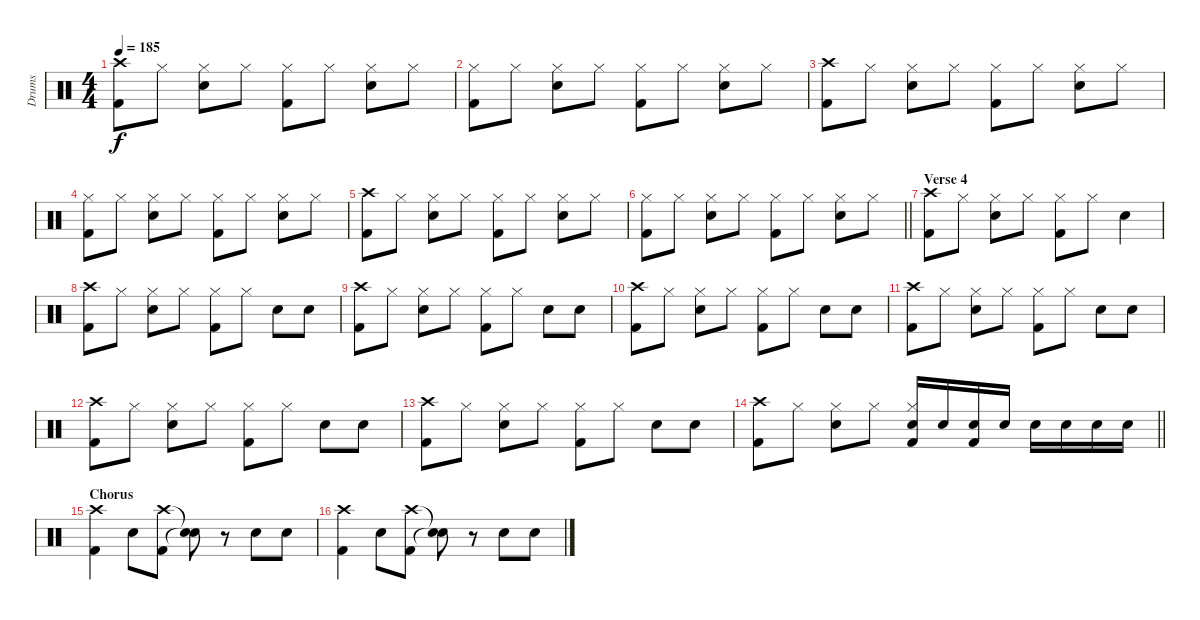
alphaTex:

\track ("Drums" "Drums") {instrument percussion}
\staff {score}
\articulation defaults
\ts (4 4)
\tempo 185
\clef neutral
\ks c
("Crash high (hit)" "Kick (hit) 2").8{dy f} "Hi-Hat (closed)".8 ("Hi-Hat (closed)" "Snare (hit) 2").8 "Hi-Hat (closed)".8 ("Hi-Hat (closed)" "Kick (hit) 2").8 "Hi-Hat (closed)".8 ("Hi-Hat (closed)" "Snare (hit) 2").8 "Hi-Hat (closed)".8 |
("Hi-Hat (closed)" "Kick (hit) 2").8 "Hi-Hat (closed)".8 ("Hi-Hat (closed)" "Snare (hit) 2").8 "Hi-Hat (closed)".8 ("Hi-Hat (closed)" "Kick (hit) 2").8 "Hi-Hat (closed)".8 ("Hi-Hat (closed)" "Snare (hit) 2").8 "Hi-Hat (closed)".8 |
("Crash high (hit)" "Kick (hit) 2").8 "Hi-Hat (closed)".8 ("Hi-Hat (closed)" "Snare (hit) 2").8 "Hi-Hat (closed)".8 ("Hi-Hat (closed)" "Kick (hit) 2").8 "Hi-Hat (closed)".8 ("Hi-Hat (closed)" "Snare (hit) 2").8 "Hi-Hat (closed)".8 |
("Hi-Hat (closed)" "Kick (hit) 2").8 "Hi-Hat (closed)".8 ("Hi-Hat (closed)" "Snare (hit) 2").8 "Hi-Hat (closed)".8 ("Hi-Hat (closed)" "Kick (hit) 2").8 "Hi-Hat (closed)".8 ("Hi-Hat (closed)" "Snare (hit) 2").8 "Hi-Hat (closed)".8 |
("Crash high (hit)" "Kick (hit) 2").8 "Hi-Hat (closed)".8 ("Hi-Hat (closed)" "Snare (hit) 2").8 "Hi-Hat (closed)".8 ("Hi-Hat (closed)" "Kick (hit) 2").8 "Hi-Hat (closed)".8 ("Hi-Hat (closed)" "Snare (hit) 2").8 "Hi-Hat (closed)".8 |
\barLineRight lightlight
("Hi-Hat (closed)" "Kick (hit) 2").8 "Hi-Hat (closed)".8 ("Hi-Hat (closed)" "Snare (hit) 2").8 "Hi-Hat (closed)".8 ("Hi-Hat (closed)" "Kick (hit) 2").8 "Hi-Hat (closed)".8 ("Hi-Hat (closed)" "Snare (hit) 2").8 "Hi-Hat (closed)".8 |
\section ("" "Verse 4")
("Crash high (hit)" "Kick (hit) 2").8 "Hi-Hat (closed)".8 ("Hi-Hat (closed)" "Snare (hit) 2").8 "Hi-Hat (closed)".8 ("Hi-Hat (closed)" "Kick (hit) 2").8 "Hi-Hat (closed)".8 "Snare (hit) 2".4 |
("Crash high (hit)" "Kick (hit) 2").8 "Hi-Hat (closed)".8 ("Hi-Hat (closed)" "Snare (hit) 2").8 "Hi-Hat (closed)".8 ("Hi-Hat (closed)" "Kick (hit) 2").8 "Hi-Hat (closed)".8 "Snare (hit) 2".8 "Snare (hit) 2".8 |
("Crash high (hit)" "Kick (hit) 2").8 "Hi-Hat (closed)".8 ("Hi-Hat (closed)" "Snare (hit) 2").8 "Hi-Hat (closed)".8 ("Hi-Hat (closed)" "Kick (hit) 2").8 "Hi-Hat (closed)".8 "Snare (hit) 2".8 "Snare (hit) 2".8 |
("Crash high (hit)" "Kick (hit) 2").8 "Hi-Hat (closed)".8 ("Hi-Hat (closed)" "Snare (hit) 2").8 "Hi-Hat (closed)".8 ("Hi-Hat (closed)" "Kick (hit) 2").8 "Hi-Hat (closed)".8 "Snare (hit) 2".8 "Snare (hit) 2".8 |
("Crash high (hit)" "Kick (hit) 2").8 "Hi-Hat (closed)".8 ("Hi-Hat (closed)" "Snare (hit) 2").8 "Hi-Hat (closed)".8 ("Hi-Hat (closed)" "Kick (hit) 2").8 "Hi-Hat (closed)".8 "Snare (hit) 2".8 "Snare (hit) 2".8 |
("Crash high (hit)" "Kick (hit) 2").8 "Hi-Hat (closed)".8 ("Hi-Hat (closed)" "Snare (hit) 2").8 "Hi-Hat (closed)".8 ("Hi-Hat (closed)" "Kick (hit) 2").8 "Hi-Hat (closed)".8 "Snare (hit) 2".8 "Snare (hit) 2".8 |
("Crash high (hit)" "Kick (hit) 2").8 "Hi-Hat (closed)".8 ("Hi-Hat (closed)" "Snare (hit) 2").8 "Hi-Hat (closed)".8 ("Hi-Hat (closed)" "Kick (hit) 2").8 "Hi-Hat (closed)".8 "Snare (hit) 2".8 "Snare (hit) 2".8 |
\barLineRight lightlight
("Crash high (hit)" "Kick (hit) 2").8 "Hi-Hat (closed)".8 ("Hi-Hat (closed)" "Snare (hit) 2").8 "Hi-Hat (closed)".8 ("Hi-Hat (closed)" "Snare (hit) 2" "Kick (hit) 2").16 "Snare (hit) 2".16 ("Snare (hit) 2" "Kick (hit) 2").16 "Snare (hit) 2".16 "Snare (hit) 2".16 "Snare (hit) 2".16 "Snare (hit) 2".16 "Snare (hit) 2".16 |
\section ("" "Chorus")
("Crash high (hit)" "Kick (hit) 2").4 "Snare (hit) 2".8 ("Crash high (hit)" "Kick (hit) 2").8 ("Snare (hit)"{t} "Snare (hit)"{t}).8 r.8 "Snare (hit) 2".8 "Snare (hit) 2".8 |
("Crash high (hit)" "Kick (hit) 2").4 "Snare (hit) 2".8 ("Crash high (hit)" "Kick (hit) 2").8 ("Snare (hit)"{t} "Snare (hit)"{t}).8 r.8 "Snare (hit) 2".8 "Snare (hit) 2".8
